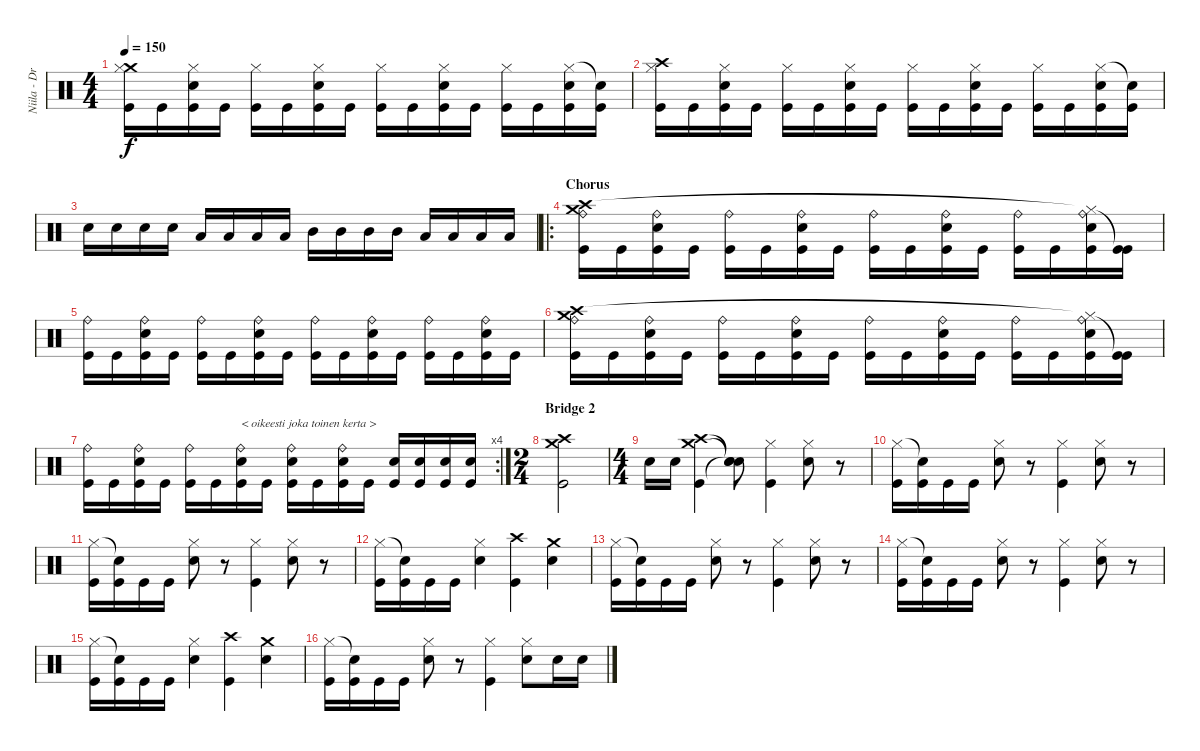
\track ("Niila - Drums" "Niila - Dr") {instrument percussion}
\staff {score}
\articulation defaults
\ts (4 4)
\tempo 150
\clef neutral
\ks c
("Crash medium (hit)" "Hi-Hat (closed)" "Kick (hit)").16{dy f} "Kick (hit)".16 ("Hi-Hat (closed)" "Snare (hit) 2" "Kick (hit)").16 "Kick (hit)".16 ("Hi-Hat (closed)" "Kick (hit)").16 "Kick (hit)".16 ("Hi-Hat (closed)" "Snare (hit) 2" "Kick (hit)").16 "Kick (hit)".16 ("Hi-Hat (closed)" "Kick (hit)").16 "Kick (hit)".16 ("Hi-Hat (closed)" "Snare (hit) 2" "Kick (hit)").16 "Kick (hit)".16 ("Hi-Hat (closed)" "Kick (hit)").16 "Kick (hit)".16 ("Hi-Hat (closed)" "Snare (hit) 2" "Kick (hit)").16 ("Snare (hit)"{t} "Kick (hit)").16 |
("Crash high (hit)" "Hi-Hat (closed)" "Kick (hit)").16 "Kick (hit)".16 ("Hi-Hat (closed)" "Snare (hit) 2" "Kick (hit)").16 "Kick (hit)".16 ("Hi-Hat (closed)" "Kick (hit)").16 "Kick (hit)".16 ("Hi-Hat (closed)" "Snare (hit) 2" "Kick (hit)").16 "Kick (hit)".16 ("Hi-Hat (closed)" "Kick (hit)").16 "Kick (hit)".16 ("Hi-Hat (closed)" "Snare (hit) 2" "Kick (hit)").16 "Kick (hit)".16 ("Hi-Hat (closed)" "Kick (hit)").16 "Kick (hit)".16 ("Hi-Hat (closed)" "Snare (hit) 2" "Kick (hit)").16 ("Snare (hit)"{t} "Kick (hit)").16 |
"Snare (hit) 2".16 "Snare (hit) 2".16 "Snare (hit) 2".16 "Snare (hit) 2".16 "Low Tom (hit)".16 "Low Tom (hit)".16 "Low Tom (hit)".16 "Low Tom (hit)".16 "Mid Tom (hit)".16 "Mid Tom (hit)".16 "Mid Tom (hit)".16 "Mid Tom (hit)".16 "Low Tom (hit)".16 "Low Tom (hit)".16 "Low Tom (hit)".16 "Low Tom (hit)".16 |
\ro
\section ("" "Chorus")
("Crash medium (hit)" "Ride (bell)" "Kick (hit)" "Crash high (hit)").16 "Kick (hit)".16 ("Ride (bell)" "Snare (hit) 2" "Kick (hit)").16 "Kick (hit)".16 ("Ride (bell)" "Kick (hit)").16 "Kick (hit)".16 ("Ride (bell)" "Snare (hit) 2" "Kick (hit)").16 "Kick (hit)".16 ("Ride (bell)" "Kick (hit)").16 "Kick (hit)".16 ("Ride (bell)" "Snare (hit) 2" "Kick (hit)").16 "Kick (hit)".16 ("Ride (bell)" "Kick (hit)").16 "Kick (hit)".16 ("Ride (bell)" "Snare (hit) 2" "Kick (hit)" "Hi-Hat (closed)"{t}).16 ("Kick (hit)"{t} "Kick (hit)").16 |
("Ride (bell)" "Kick (hit)").16 "Kick (hit)".16 ("Ride (bell)" "Snare (hit) 2" "Kick (hit)").16 "Kick (hit)".16 ("Ride (bell)" "Kick (hit)").16 "Kick (hit)".16 ("Ride (bell)" "Snare (hit) 2" "Kick (hit)").16 "Kick (hit)".16 ("Ride (bell)" "Kick (hit)").16 "Kick (hit)".16 ("Ride (bell)" "Snare (hit) 2" "Kick (hit)").16 "Kick (hit)".16 ("Ride (bell)" "Kick (hit)").16 "Kick (hit)".16 ("Ride (bell)" "Snare (hit) 2" "Kick (hit)").16 "Kick (hit)".16 |
("Crash medium (hit)" "Ride (bell)" "Kick (hit)" "Crash high (hit)").16 "Kick (hit)".16 ("Ride (bell)" "Snare (hit) 2" "Kick (hit)").16 "Kick (hit)".16 ("Ride (bell)" "Kick (hit)").16 "Kick (hit)".16 ("Ride (bell)" "Snare (hit) 2" "Kick (hit)").16 "Kick (hit)".16 ("Ride (bell)" "Kick (hit)").16 "Kick (hit)".16 ("Ride (bell)" "Snare (hit) 2" "Kick (hit)").16 "Kick (hit)".16 ("Ride (bell)" "Kick (hit)").16 "Kick (hit)".16 ("Ride (bell)" "Snare (hit) 2" "Kick (hit)" "Hi-Hat (closed)"{t}).16 ("Kick (hit)"{t} "Kick (hit)").16 |
\rc 4
("Ride (bell)" "Kick (hit)").16 "Kick (hit)".16 ("Ride (bell)" "Snare (hit) 2" "Kick (hit)").16 "Kick (hit)".16 ("Ride (bell)" "Kick (hit)").16 "Kick (hit)".16 ("Ride (bell)" "Snare (hit) 2" "Kick (hit)").16{txt "< oikeesti joka toinen kerta >"} "Kick (hit)".16 ("Ride (bell)" "Snare (hit) 2" "Kick (hit)").16 "Kick (hit)".16 ("Ride (bell)" "Snare (hit) 2" "Kick (hit)").16 "Kick (hit)".16 ("Snare (hit) 2" "Kick (hit)").16 ("Snare (hit) 2" "Kick (hit)").16 ("Snare (hit) 2" "Kick (hit)").16 ("Snare (hit) 2" "Kick (hit)").16 |
\ts (2 4)
\section ("" "Bridge 2")
("Crash medium (hit)" "Crash high (hit)" "Kick (hit)").2 |
\ts (4 4)
"Snare (hit) 2".16 "Snare (hit) 2".16 ("Crash medium (hit)" "Crash high (hit)" "Kick (hit)").4 ("Snare (hit)"{t} "Snare (hit)"{t} "Snare (hit)"{t}).8 ("Hi-Hat (closed)" "Kick (hit)").4 ("Hi-Hat (closed)" "Snare (hit) 2").8 r.8 |
("Hi-Hat (closed)" "Kick (hit)").16 ("Snare (hit)"{t} "Kick (hit)").16 "Kick (hit)".16 "Kick (hit)".16 ("Hi-Hat (closed)" "Snare (hit) 2").8 r.8 ("Hi-Hat (closed)" "Kick (hit)").4 ("Hi-Hat (closed)" "Snare (hit) 2").8 r.8 |
("Hi-Hat (closed)" "Kick (hit)").16 ("Snare (hit)"{t} "Kick (hit)").16 "Kick (hit)".16 "Kick (hit)".16 ("Hi-Hat (closed)" "Snare (hit) 2").8 r.8 ("Hi-Hat (closed)" "Kick (hit)").4 ("Hi-Hat (closed)" "Snare (hit) 2").8 r.8 |
("Hi-Hat (closed)" "Kick (hit)").16 ("Snare (hit)"{t} "Kick (hit)").16 "Kick (hit)".16 "Kick (hit)".16 ("Hi-Hat (closed)" "Snare (hit) 2").4 ("Crash high (hit)" "Kick (hit)").4 ("Crash medium (hit)" "Snare (hit) 2").4 |
("Hi-Hat (closed)" "Kick (hit)").16 ("Snare (hit)"{t} "Kick (hit)").16 "Kick (hit)".16 "Kick (hit)".16 ("Hi-Hat (closed)" "Snare (hit) 2").8 r.8 ("Hi-Hat (closed)" "Kick (hit)").4 ("Hi-Hat (closed)" "Snare (hit) 2").8 r.8 |
("Hi-Hat (closed)" "Kick (hit)").16 ("Snare (hit)"{t} "Kick (hit)").16 "Kick (hit)".16 "Kick (hit)".16 ("Hi-Hat (closed)" "Snare (hit) 2").8 r.8 ("Hi-Hat (closed)" "Kick (hit)").4 ("Hi-Hat (closed)" "Snare (hit) 2").8 r.8 |
("Hi-Hat (closed)" "Kick (hit)").16 ("Snare (hit)"{t} "Kick (hit)").16 "Kick (hit)".16 "Kick (hit)".16 ("Hi-Hat (closed)" "Snare (hit) 2").4 ("Crash high (hit)" "Kick (hit)").4 ("Crash medium (hit)" "Snare (hit) 2").4 |
("Hi-Hat (closed)" "Kick (hit)").16 ("Snare (hit)"{t} "Kick (hit)").16 "Kick (hit)".16 "Kick (hit)".16 ("Hi-Hat (closed)" "Snare (hit) 2").8 r.8 ("Hi-Hat (closed)" "Kick (hit)").4 ("Hi-Hat (closed)" "Snare (hit) 2").8 "Snare (hit) 2".16 "Snare (hit) 2".16
